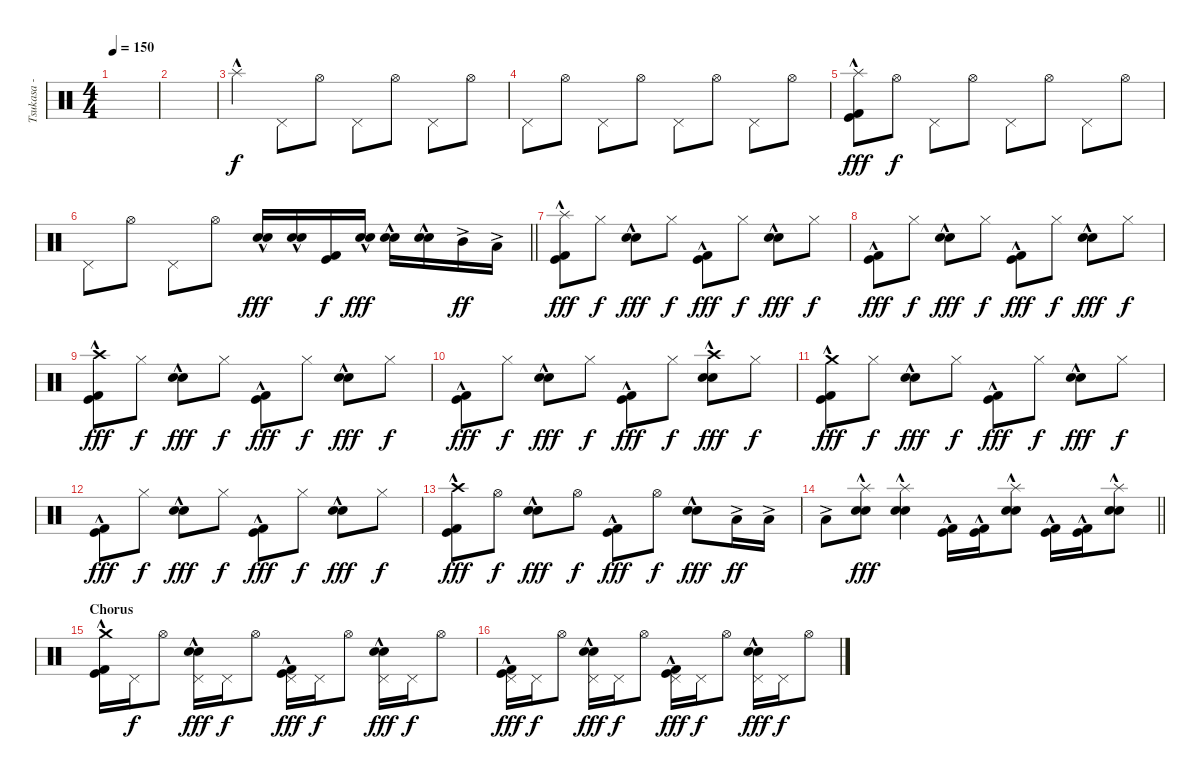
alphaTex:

\track ("Tsukasa - Drums" "Tsukasa - ") {instrument percussion}
\staff {score}
\articulation defaults
\ts (4 4)
\tempo 150
\clef neutral
\ks c
|
|
"Splash (hit)"{hac}.4 "Pedal Hi-Hat (hit)".8{dy f} "Hi-Hat (open)".8 "Pedal Hi-Hat (hit)".8 "Hi-Hat (open)".8 "Pedal Hi-Hat (hit)".8 "Hi-Hat (open)".8 |
"Pedal Hi-Hat (hit)".8 "Hi-Hat (open)".8 "Pedal Hi-Hat (hit)".8 "Hi-Hat (open)".8 "Pedal Hi-Hat (hit)".8 "Hi-Hat (open)".8 "Pedal Hi-Hat (hit)".8 "Hi-Hat (open)".8 |
("Splash (hit)"{hac} "Kick (hit)" "Kick (hit) 2").8{dy fff} "Hi-Hat (open)".8{dy f} "Pedal Hi-Hat (hit)".8 "Hi-Hat (open)".8 "Pedal Hi-Hat (hit)".8 "Hi-Hat (open)".8 "Pedal Hi-Hat (hit)".8 "Hi-Hat (open)".8 |
\barLineRight lightlight "Pedal Hi-Hat (hit)".8 "Hi-Hat (open)".8 "Pedal Hi-Hat (hit)".8 "Hi-Hat (open)".8
("Electric Snare (hit)"{hac} "Snare (hit) 2").16{dy fff} ("Electric Snare (hit)"{hac} "Snare (hit) 2").16 ("Kick (hit)" "Kick (hit) 2").16{dy f} ("Electric Snare (hit)"{hac} "Snare (hit) 2").16{dy fff} ("Electric Snare (hit)"{hac} "Snare (hit) 2").16 ("Electric Snare (hit)"{hac} "Snare (hit) 2").16 "Mid Tom (hit)"{ac}.16{dy ff} "Low Tom (hit)"{ac}.16 |
\section ("" "")
("Splash (hit)"{hac} "Kick (hit)" "Kick (hit) 2"{hac}).8{dy fff} "Hi-Hat (closed)".8{dy f} ("Electric Snare (hit)"{hac} "Snare (hit) 2").8{dy fff} "Hi-Hat (closed)".8{dy f} ("Kick (hit)" "Kick (hit) 2"{hac}).8{dy fff} "Hi-Hat (closed)".8{dy f} ("Electric Snare (hit)"{hac} "Snare (hit) 2").8{dy fff} "Hi-Hat (closed)".8{dy f} |
("Kick (hit)" "Kick (hit) 2"{hac}).8{dy fff} "Hi-Hat (closed)".8{dy f} ("Electric Snare (hit)"{hac} "Snare (hit) 2").8{dy fff} "Hi-Hat (closed)".8{dy f} ("Kick (hit)" "Kick (hit) 2"{hac}).8{dy fff} "Hi-Hat (closed)".8{dy f} ("Electric Snare (hit)"{hac} "Snare (hit) 2").8{dy fff} "Hi-Hat (closed)".8{dy f} |
("Crash high (hit)" "Kick (hit)" "Kick (hit) 2"{hac}).8{dy fff} "Hi-Hat (closed)".8{dy f} ("Electric Snare (hit)"{hac} "Snare (hit) 2").8{dy fff} "Hi-Hat (closed)".8{dy f} ("Kick (hit)" "Kick (hit) 2"{hac}).8{dy fff} "Hi-Hat (closed)".8{dy f} ("Electric Snare (hit)"{hac} "Snare (hit) 2").8{dy fff} "Hi-Hat (closed)".8{dy f} |
("Kick (hit)" "Kick (hit) 2"{hac}).8{dy fff} "Hi-Hat (closed)".8{dy f} ("Electric Snare (hit)"{hac} "Snare (hit) 2").8{dy fff} "Hi-Hat (closed)".8{dy f} ("Kick (hit)" "Kick (hit) 2"{hac}).8{dy fff} "Hi-Hat (closed)".8{dy f} ("Crash high (hit)" "Electric Snare (hit)"{hac} "Snare (hit) 2").8{dy fff} "Hi-Hat (closed)".8{dy f} |
("Crash medium (hit)" "Kick (hit)" "Kick (hit) 2"{hac}).8{dy fff} "Hi-Hat (closed)".8{dy f} ("Electric Snare (hit)"{hac} "Snare (hit) 2").8{dy fff} "Hi-Hat (closed)".8{dy f} ("Kick (hit)" "Kick (hit) 2"{hac}).8{dy fff} "Hi-Hat (closed)".8{dy f} ("Electric Snare (hit)"{hac} "Snare (hit) 2").8{dy fff} "Hi-Hat (closed)".8{dy f} |
("Kick (hit)" "Kick (hit) 2"{hac}).8{dy fff} "Hi-Hat (closed)".8{dy f} ("Electric Snare (hit)"{hac} "Snare (hit) 2").8{dy fff} "Hi-Hat (closed)".8{dy f} ("Kick (hit)" "Kick (hit) 2"{hac}).8{dy fff} "Hi-Hat (closed)".8{dy f} ("Electric Snare (hit)"{hac} "Snare (hit) 2").8{dy fff} "Hi-Hat (closed)".8{dy f} |
("Crash high (hit)" "Kick (hit)" "Kick (hit) 2"{hac}).8{dy fff} "Hi-Hat (open)".8{dy f} ("Electric Snare (hit)"{hac} "Snare (hit) 2").8{dy fff} "Hi-Hat (open)".8{dy f} ("Kick (hit)" "Kick (hit) 2"{hac}).8{dy fff} "Hi-Hat (open)".8{dy f} ("Electric Snare (hit)"{hac} "Snare (hit) 2").8{dy fff} "Low Tom (hit)"{ac}.16{dy ff} "Low Tom (hit)"{ac}.16 |
\barLineRight lightlight "Low Tom (hit)"{ac}.8
("Splash (hit)"{hac} "Electric Snare (hit)"{hac} "Snare (hit) 2").8{dy fff} ("Splash (hit)"{hac} "Electric Snare (hit)"{hac} "Snare (hit) 2").4 ("Kick (hit)"{hac} "Kick (hit) 2"{hac}).16 ("Kick (hit)"{hac} "Kick (hit) 2"{hac}).16 ("Splash (hit)"{hac} "Electric Snare (hit)"{hac} "Snare (hit) 2").8 ("Kick (hit)"{hac} "Kick (hit) 2"{hac}).16 ("Kick (hit)"{hac} "Kick (hit) 2"{hac}).16 ("Splash (hit)"{hac} "Electric Snare (hit)"{hac} "Snare (hit) 2").8 |
\section ("" "Chorus")
("Crash medium (hit)" "Kick (hit)"{hac} "Kick (hit) 2"{hac}).16 "Pedal Hi-Hat (hit)".16{dy f} "Hi-Hat (open)".8 ("Pedal Hi-Hat (hit)" "Electric Snare (hit)"{hac} "Snare (hit) 2").16{dy fff} "Pedal Hi-Hat (hit)".16{dy f} "Hi-Hat (open)".8 ("Pedal Hi-Hat (hit)" "Kick (hit)"{hac} "Kick (hit) 2"{hac}).16{dy fff} "Pedal Hi-Hat (hit)".16{dy f} "Hi-Hat (open)".8 ("Pedal Hi-Hat (hit)" "Electric Snare (hit)"{hac} "Snare (hit) 2").16{dy fff} "Pedal Hi-Hat (hit)".16{dy f} "Hi-Hat (open)".8 |
("Pedal Hi-Hat (hit)" "Kick (hit)"{hac} "Kick (hit) 2"{hac}).16{dy fff} "Pedal Hi-Hat (hit)".16{dy f} "Hi-Hat (open)".8 ("Pedal Hi-Hat (hit)" "Electric Snare (hit)"{hac} "Snare (hit) 2").16{dy fff} "Pedal Hi-Hat (hit)".16{dy f} "Hi-Hat (open)".8 ("Pedal Hi-Hat (hit)" "Kick (hit)"{hac} "Kick (hit) 2"{hac}).16{dy fff} "Pedal Hi-Hat (hit)".16{dy f} "Hi-Hat (open)".8 ("Pedal Hi-Hat (hit)" "Electric Snare (hit)"{hac} "Snare (hit) 2").16{dy fff} "Pedal Hi-Hat (hit)".16{dy f} "Hi-Hat (open)".8
